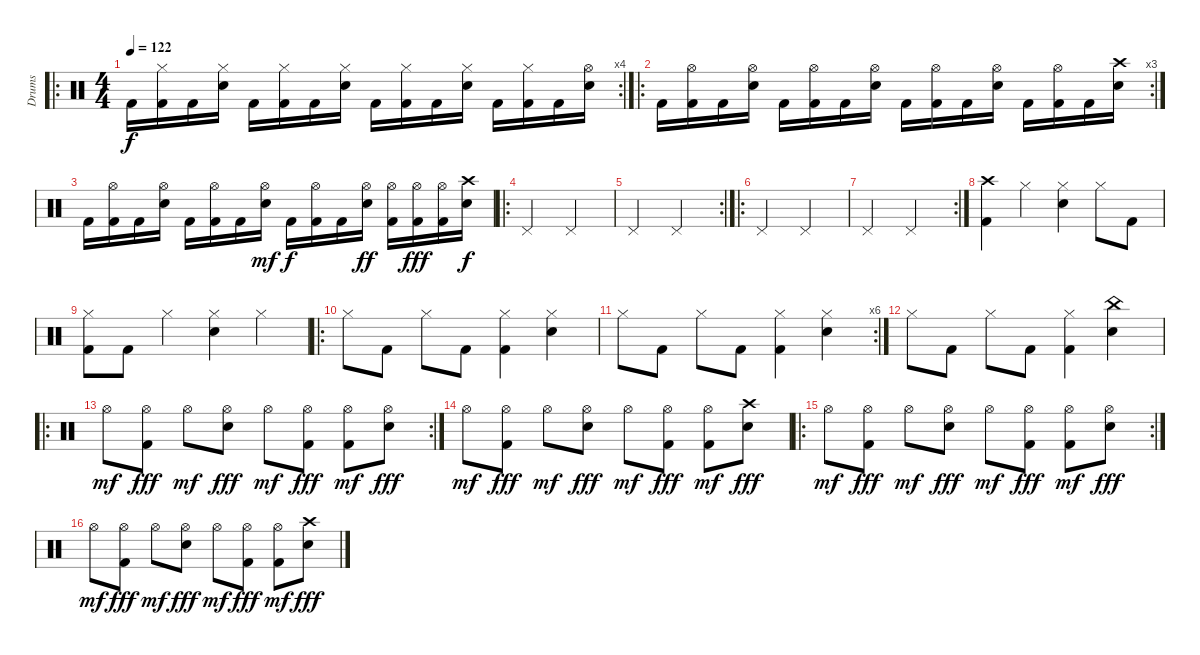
\track ("Drums" "Drums") {instrument percussion}
\staff {score}
\articulation defaults
\ro
\rc 4
\ts (4 4)
\tempo 122
\clef neutral
\ks c "Kick (hit) 2".16{dy f}
("Hi-Hat (closed)" "Kick (hit) 2").16 "Kick (hit) 2".16 ("Hi-Hat (closed)" "Snare (hit) 2").16 "Kick (hit) 2".16 ("Hi-Hat (closed)" "Kick (hit) 2").16 "Kick (hit) 2".16 ("Hi-Hat (closed)" "Snare (hit) 2").16 "Kick (hit) 2".16 ("Hi-Hat (closed)" "Kick (hit) 2").16 "Kick (hit) 2".16 ("Hi-Hat (closed)" "Snare (hit) 2").16 "Kick (hit) 2".16 ("Hi-Hat (closed)" "Kick (hit) 2").16 "Kick (hit) 2".16 ("Hi-Hat (open)" "Snare (hit) 2").16 |
\ro
\rc 3 "Kick (hit) 2".16
("Hi-Hat (open)" "Kick (hit) 2").16 "Kick (hit) 2".16 ("Hi-Hat (open)" "Snare (hit) 2").16 "Kick (hit) 2".16 ("Hi-Hat (open)" "Kick (hit) 2").16 "Kick (hit) 2".16 ("Hi-Hat (open)" "Snare (hit) 2").16 "Kick (hit) 2".16 ("Hi-Hat (open)" "Kick (hit) 2").16 "Kick (hit) 2".16 ("Hi-Hat (open)" "Snare (hit) 2").16 "Kick (hit) 2".16 ("Hi-Hat (open)" "Kick (hit) 2").16 "Kick (hit) 2".16 ("Crash high (hit)" "Snare (hit) 2").16 |
"Kick (hit) 2".16 ("Hi-Hat (open)" "Kick (hit) 2").16 "Kick (hit) 2".16 ("Hi-Hat (open)" "Snare (hit) 2").16 "Kick (hit) 2".16 ("Hi-Hat (open)" "Kick (hit) 2").16 "Kick (hit) 2".16 ("Hi-Hat (open)" "Snare (hit) 2").16{dy mf} "Kick (hit) 2".16{dy f} ("Hi-Hat (open)" "Kick (hit) 2").16 "Kick (hit) 2".16 ("Hi-Hat (open)" "Snare (hit) 2").16{dy ff} ("Hi-Hat (open)" "Kick (hit) 2").16 ("Hi-Hat (open)" "Kick (hit) 2").16{dy fff} ("Hi-Hat (open)" "Kick (hit) 2").16 ("Crash high (hit)" "Snare (hit) 2").16{dy f} |
\ro "Pedal Hi-Hat (hit)".2 "Pedal Hi-Hat (hit)".2
|
\rc 2 "Pedal Hi-Hat (hit)".2 "Pedal Hi-Hat (hit)".2
|
\ro "Pedal Hi-Hat (hit)".2 "Pedal Hi-Hat (hit)".2
|
\rc 2 "Pedal Hi-Hat (hit)".2 "Pedal Hi-Hat (hit)".2
|
("Crash high (hit)" "Kick (hit) 2").4 "Hi-Hat (closed)".4 ("Hi-Hat (closed)" "Snare (hit) 2").4 "Hi-Hat (closed)".8 "Kick (hit) 2".8 |
("Hi-Hat (closed)" "Kick (hit) 2").8 "Kick (hit) 2".8 "Hi-Hat (closed)".4 ("Hi-Hat (closed)" "Snare (hit) 2").4 "Hi-Hat (closed)".4 |
\ro "Hi-Hat (closed)".8 "Kick (hit) 2".8 "Hi-Hat (closed)".8 "Kick (hit) 2".8
("Hi-Hat (closed)" "Kick (hit) 2").4 ("Hi-Hat (closed)" "Snare (hit) 2").4 |
\rc 6 "Hi-Hat (closed)".8 "Kick (hit) 2".8 "Hi-Hat (closed)".8 "Kick (hit) 2".8
("Hi-Hat (closed)" "Kick (hit) 2").4 ("Hi-Hat (closed)" "Snare (hit) 2").4 |
"Hi-Hat (closed)".8 "Kick (hit) 2".8 "Hi-Hat (closed)".8 "Kick (hit) 2".8 ("Hi-Hat (closed)" "Kick (hit) 2").4 ("China (hit)" "Snare (hit) 2").4 |
\ro
\rc 2 "Hi-Hat (open)".8{dy mf}
("Hi-Hat (open)" "Kick (hit) 2").8{dy fff} "Hi-Hat (open)".8{dy mf} ("Hi-Hat (open)" "Snare (hit) 2").8{dy fff} "Hi-Hat (open)".8{dy mf} ("Hi-Hat (open)" "Kick (hit) 2").8{dy fff} ("Hi-Hat (open)" "Kick (hit) 2").8{dy mf} ("Hi-Hat (open)" "Snare (hit) 2").8{dy fff} |
"Hi-Hat (open)".8{dy mf} ("Hi-Hat (open)" "Kick (hit) 2").8{dy fff} "Hi-Hat (open)".8{dy mf} ("Hi-Hat (open)" "Snare (hit) 2").8{dy fff} "Hi-Hat (open)".8{dy mf} ("Hi-Hat (open)" "Kick (hit) 2").8{dy fff} ("Hi-Hat (open)" "Kick (hit) 2").8{dy mf} ("Crash high (hit)" "Snare (hit) 2").8{dy fff} |
\ro
\rc 2 "Hi-Hat (open)".8{dy mf}
("Hi-Hat (open)" "Kick (hit) 2").8{dy fff} "Hi-Hat (open)".8{dy mf} ("Hi-Hat (open)" "Snare (hit) 2").8{dy fff} "Hi-Hat (open)".8{dy mf} ("Hi-Hat (open)" "Kick (hit) 2").8{dy fff} ("Hi-Hat (open)" "Kick (hit) 2").8{dy mf} ("Hi-Hat (open)" "Snare (hit) 2").8{dy fff} |
"Hi-Hat (open)".8{dy mf} ("Hi-Hat (open)" "Kick (hit) 2").8{dy fff} "Hi-Hat (open)".8{dy mf} ("Hi-Hat (open)" "Snare (hit) 2").8{dy fff} "Hi-Hat (open)".8{dy mf} ("Hi-Hat (open)" "Kick (hit) 2").8{dy fff} ("Hi-Hat (open)" "Kick (hit) 2").8{dy mf} ("Crash high (hit)" "Snare (hit) 2").8{dy fff}
